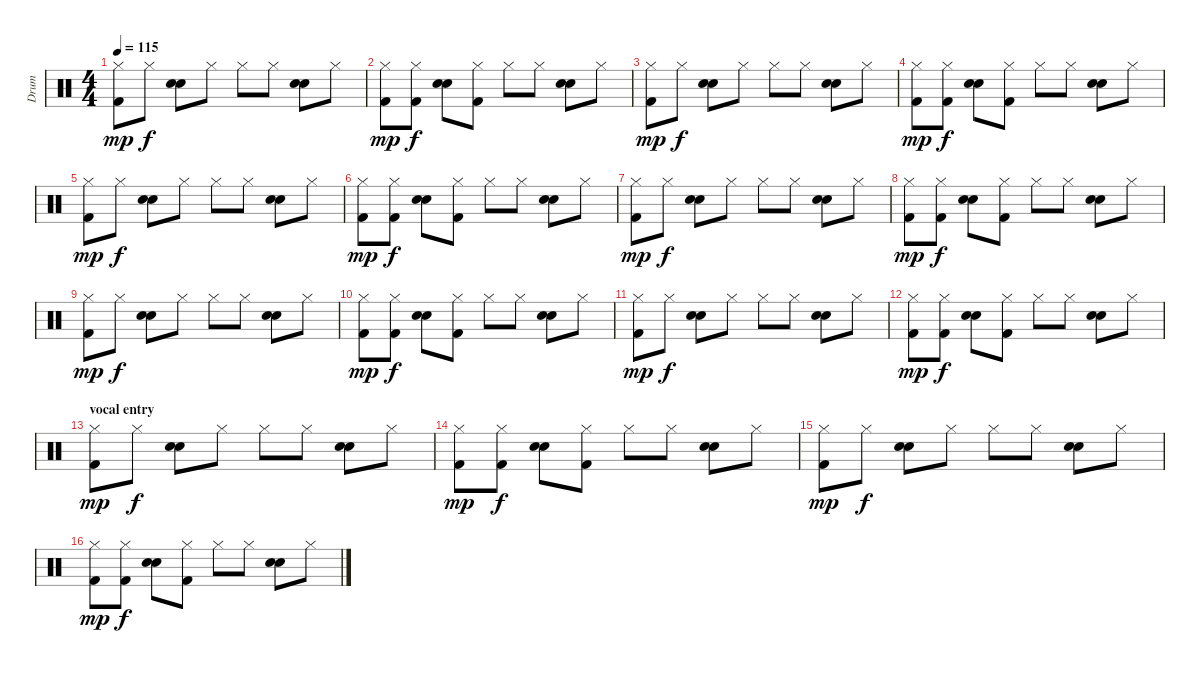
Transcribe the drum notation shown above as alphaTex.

\track ("Drum" "Drum") {instrument percussion}
\staff {score}
\articulation defaults
\ts (4 4)
\tempo 115
\clef neutral
\ks c
("Hi-Hat (closed)" "Kick (hit) 2").8{dy mp} "Hi-Hat (closed)".8{dy f} ("Electric Snare (hit)" "Electric Snare (hit)").8 "Hi-Hat (closed)".8 "Hi-Hat (closed)".8 "Hi-Hat (closed)".8 ("Electric Snare (hit)" "Electric Snare (hit)").8 "Hi-Hat (closed)".8 |
("Hi-Hat (closed)" "Kick (hit) 2").8{dy mp} ("Hi-Hat (closed)" "Kick (hit) 2").8{dy f} ("Electric Snare (hit)" "Electric Snare (hit)").8 ("Hi-Hat (closed)" "Kick (hit) 2").8 "Hi-Hat (closed)".8 "Hi-Hat (closed)".8 ("Electric Snare (hit)" "Electric Snare (hit)").8 "Hi-Hat (closed)".8 |
("Hi-Hat (closed)" "Kick (hit) 2").8{dy mp} "Hi-Hat (closed)".8{dy f} ("Electric Snare (hit)" "Electric Snare (hit)").8 "Hi-Hat (closed)".8 "Hi-Hat (closed)".8 "Hi-Hat (closed)".8 ("Electric Snare (hit)" "Electric Snare (hit)").8 "Hi-Hat (closed)".8 |
("Hi-Hat (closed)" "Kick (hit) 2").8{dy mp} ("Hi-Hat (closed)" "Kick (hit) 2").8{dy f} ("Electric Snare (hit)" "Electric Snare (hit)").8 ("Hi-Hat (closed)" "Kick (hit) 2").8 "Hi-Hat (closed)".8 "Hi-Hat (closed)".8 ("Electric Snare (hit)" "Electric Snare (hit)").8 "Hi-Hat (closed)".8 |
("Hi-Hat (closed)" "Kick (hit) 2").8{dy mp} "Hi-Hat (closed)".8{dy f} ("Electric Snare (hit)" "Electric Snare (hit)").8 "Hi-Hat (closed)".8 "Hi-Hat (closed)".8 "Hi-Hat (closed)".8 ("Electric Snare (hit)" "Electric Snare (hit)").8 "Hi-Hat (closed)".8 |
("Hi-Hat (closed)" "Kick (hit) 2").8{dy mp} ("Hi-Hat (closed)" "Kick (hit) 2").8{dy f} ("Electric Snare (hit)" "Electric Snare (hit)").8 ("Hi-Hat (closed)" "Kick (hit) 2").8 "Hi-Hat (closed)".8 "Hi-Hat (closed)".8 ("Electric Snare (hit)" "Electric Snare (hit)").8 "Hi-Hat (closed)".8 |
("Hi-Hat (closed)" "Kick (hit) 2").8{dy mp} "Hi-Hat (closed)".8{dy f} ("Electric Snare (hit)" "Electric Snare (hit)").8 "Hi-Hat (closed)".8 "Hi-Hat (closed)".8 "Hi-Hat (closed)".8 ("Electric Snare (hit)" "Electric Snare (hit)").8 "Hi-Hat (closed)".8 |
("Hi-Hat (closed)" "Kick (hit) 2").8{dy mp} ("Hi-Hat (closed)" "Kick (hit) 2").8{dy f} ("Electric Snare (hit)" "Electric Snare (hit)").8 ("Hi-Hat (closed)" "Kick (hit) 2").8 "Hi-Hat (closed)".8 "Hi-Hat (closed)".8 ("Electric Snare (hit)" "Electric Snare (hit)").8 "Hi-Hat (closed)".8 |
("Hi-Hat (closed)" "Kick (hit) 2").8{dy mp} "Hi-Hat (closed)".8{dy f} ("Electric Snare (hit)" "Electric Snare (hit)").8 "Hi-Hat (closed)".8 "Hi-Hat (closed)".8 "Hi-Hat (closed)".8 ("Electric Snare (hit)" "Electric Snare (hit)").8 "Hi-Hat (closed)".8 |
("Hi-Hat (closed)" "Kick (hit) 2").8{dy mp} ("Hi-Hat (closed)" "Kick (hit) 2").8{dy f} ("Electric Snare (hit)" "Electric Snare (hit)").8 ("Hi-Hat (closed)" "Kick (hit) 2").8 "Hi-Hat (closed)".8 "Hi-Hat (closed)".8 ("Electric Snare (hit)" "Electric Snare (hit)").8 "Hi-Hat (closed)".8 |
("Hi-Hat (closed)" "Kick (hit) 2").8{dy mp} "Hi-Hat (closed)".8{dy f} ("Electric Snare (hit)" "Electric Snare (hit)").8 "Hi-Hat (closed)".8 "Hi-Hat (closed)".8 "Hi-Hat (closed)".8 ("Electric Snare (hit)" "Electric Snare (hit)").8 "Hi-Hat (closed)".8 |
("Hi-Hat (closed)" "Kick (hit) 2").8{dy mp} ("Hi-Hat (closed)" "Kick (hit) 2").8{dy f} ("Electric Snare (hit)" "Electric Snare (hit)").8 ("Hi-Hat (closed)" "Kick (hit) 2").8 "Hi-Hat (closed)".8 "Hi-Hat (closed)".8 ("Electric Snare (hit)" "Electric Snare (hit)").8 "Hi-Hat (closed)".8 |
\section ("" "vocal entry")
("Hi-Hat (closed)" "Kick (hit) 2").8{dy mp} "Hi-Hat (closed)".8{dy f} ("Electric Snare (hit)" "Electric Snare (hit)").8 "Hi-Hat (closed)".8 "Hi-Hat (closed)".8 "Hi-Hat (closed)".8 ("Electric Snare (hit)" "Electric Snare (hit)").8 "Hi-Hat (closed)".8 |
("Hi-Hat (closed)" "Kick (hit) 2").8{dy mp} ("Hi-Hat (closed)" "Kick (hit) 2").8{dy f} ("Electric Snare (hit)" "Electric Snare (hit)").8 ("Hi-Hat (closed)" "Kick (hit) 2").8 "Hi-Hat (closed)".8 "Hi-Hat (closed)".8 ("Electric Snare (hit)" "Electric Snare (hit)").8 "Hi-Hat (closed)".8 |
("Hi-Hat (closed)" "Kick (hit) 2").8{dy mp} "Hi-Hat (closed)".8{dy f} ("Electric Snare (hit)" "Electric Snare (hit)").8 "Hi-Hat (closed)".8 "Hi-Hat (closed)".8 "Hi-Hat (closed)".8 ("Electric Snare (hit)" "Electric Snare (hit)").8 "Hi-Hat (closed)".8 |
("Hi-Hat (closed)" "Kick (hit) 2").8{dy mp} ("Hi-Hat (closed)" "Kick (hit) 2").8{dy f} ("Electric Snare (hit)" "Electric Snare (hit)").8 ("Hi-Hat (closed)" "Kick (hit) 2").8 "Hi-Hat (closed)".8 "Hi-Hat (closed)".8 ("Electric Snare (hit)" "Electric Snare (hit)").8 "Hi-Hat (closed)".8
